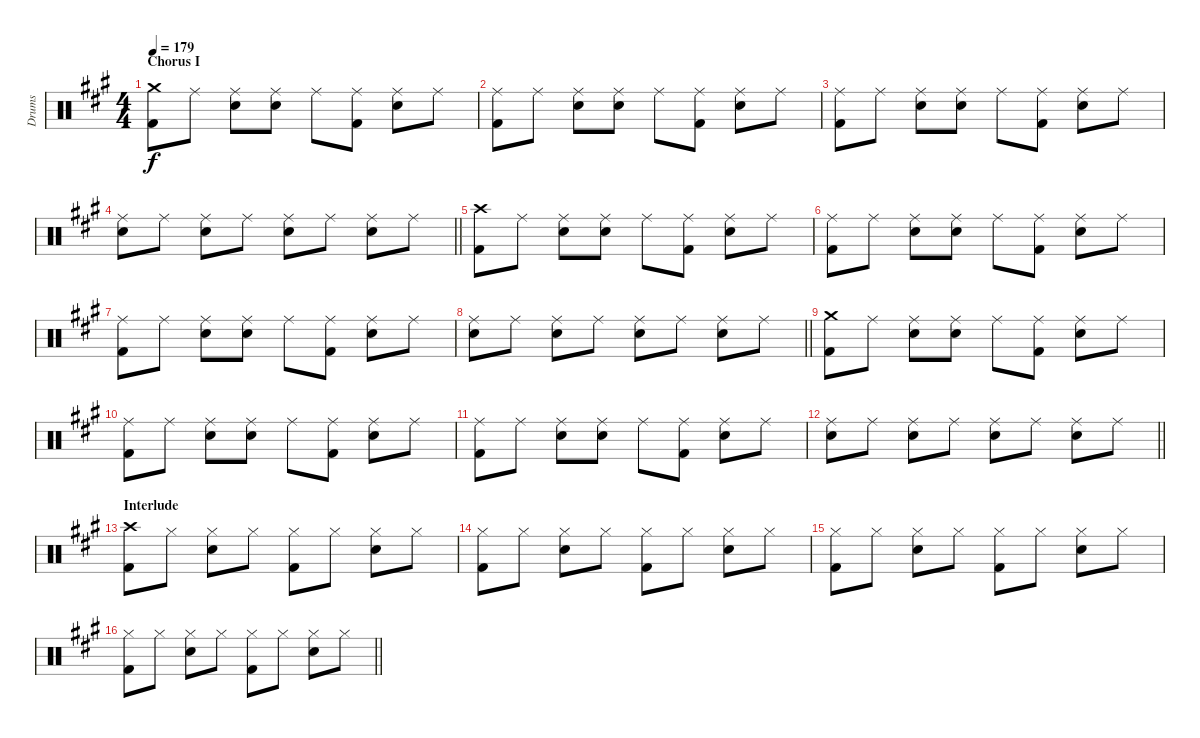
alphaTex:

\track ("Drums" "Drums") {instrument percussion}
\staff {score}
\articulation defaults
\ts (4 4)
\section ("" "Chorus I")
\tempo 179
\clef neutral
\ks a
("Crash medium (hit)" "Kick (hit) 2").8{dy f} "Ride (middle)".8 ("Ride (middle)" "Electric Snare (hit)").8 ("Ride (middle)" "Electric Snare (hit)").8 "Ride (middle)".8 ("Ride (middle)" "Kick (hit) 2").8 ("Ride (middle)" "Electric Snare (hit)").8 "Ride (middle)".8 |
("Ride (middle)" "Kick (hit) 2").8 "Ride (middle)".8 ("Ride (middle)" "Electric Snare (hit)").8 ("Ride (middle)" "Electric Snare (hit)").8 "Ride (middle)".8 ("Ride (middle)" "Kick (hit) 2").8 ("Ride (middle)" "Electric Snare (hit)").8 "Ride (middle)".8 |
("Ride (middle)" "Kick (hit) 2").8 "Ride (middle)".8 ("Ride (middle)" "Electric Snare (hit)").8 ("Ride (middle)" "Electric Snare (hit)").8 "Ride (middle)".8 ("Ride (middle)" "Kick (hit) 2").8 ("Ride (middle)" "Electric Snare (hit)").8 "Ride (middle)".8 |
\barLineRight lightlight
("Ride (middle)" "Electric Snare (hit)").8 "Ride (middle)".8 ("Ride (middle)" "Electric Snare (hit)").8 "Ride (middle)".8 ("Ride (middle)" "Electric Snare (hit)").8 "Ride (middle)".8 ("Ride (middle)" "Electric Snare (hit)").8 "Ride (middle)".8 |
("Crash high (hit)" "Kick (hit) 2").8 "Ride (middle)".8 ("Ride (middle)" "Electric Snare (hit)").8 ("Ride (middle)" "Electric Snare (hit)").8 "Ride (middle)".8 ("Ride (middle)" "Kick (hit) 2").8 ("Ride (middle)" "Electric Snare (hit)").8 "Ride (middle)".8 |
("Ride (middle)" "Kick (hit) 2").8 "Ride (middle)".8 ("Ride (middle)" "Electric Snare (hit)").8 ("Ride (middle)" "Electric Snare (hit)").8 "Ride (middle)".8 ("Ride (middle)" "Kick (hit) 2").8 ("Ride (middle)" "Electric Snare (hit)").8 "Ride (middle)".8 |
("Ride (middle)" "Kick (hit) 2").8 "Ride (middle)".8 ("Ride (middle)" "Electric Snare (hit)").8 ("Ride (middle)" "Electric Snare (hit)").8 "Ride (middle)".8 ("Ride (middle)" "Kick (hit) 2").8 ("Ride (middle)" "Electric Snare (hit)").8 "Ride (middle)".8 |
\barLineRight lightlight
("Ride (middle)" "Electric Snare (hit)").8 "Ride (middle)".8 ("Ride (middle)" "Electric Snare (hit)").8 "Ride (middle)".8 ("Ride (middle)" "Electric Snare (hit)").8 "Ride (middle)".8 ("Ride (middle)" "Electric Snare (hit)").8 "Ride (middle)".8 |
("Crash medium (hit)" "Kick (hit) 2").8 "Ride (middle)".8 ("Ride (middle)" "Electric Snare (hit)").8 ("Ride (middle)" "Electric Snare (hit)").8 "Ride (middle)".8 ("Ride (middle)" "Kick (hit) 2").8 ("Ride (middle)" "Electric Snare (hit)").8 "Ride (middle)".8 |
("Ride (middle)" "Kick (hit) 2").8 "Ride (middle)".8 ("Ride (middle)" "Electric Snare (hit)").8 ("Ride (middle)" "Electric Snare (hit)").8 "Ride (middle)".8 ("Ride (middle)" "Kick (hit) 2").8 ("Ride (middle)" "Electric Snare (hit)").8 "Ride (middle)".8 |
("Ride (middle)" "Kick (hit) 2").8 "Ride (middle)".8 ("Ride (middle)" "Electric Snare (hit)").8 ("Ride (middle)" "Electric Snare (hit)").8 "Ride (middle)".8 ("Ride (middle)" "Kick (hit) 2").8 ("Ride (middle)" "Electric Snare (hit)").8 "Ride (middle)".8 |
\barLineRight lightlight
("Ride (middle)" "Electric Snare (hit)").8 "Ride (middle)".8 ("Ride (middle)" "Electric Snare (hit)").8 "Ride (middle)".8 ("Ride (middle)" "Electric Snare (hit)").8 "Ride (middle)".8 ("Ride (middle)" "Electric Snare (hit)").8 "Ride (middle)".8 |
\section ("" "Interlude")
("Crash high (hit)" "Kick (hit) 2").8 "Hi-Hat (closed)".8 ("Hi-Hat (closed)" "Electric Snare (hit)").8 "Hi-Hat (closed)".8 ("Hi-Hat (closed)" "Kick (hit) 2").8 "Hi-Hat (closed)".8 ("Hi-Hat (closed)" "Electric Snare (hit)").8 "Hi-Hat (closed)".8 |
("Hi-Hat (closed)" "Kick (hit) 2").8 "Hi-Hat (closed)".8 ("Hi-Hat (closed)" "Electric Snare (hit)").8 "Hi-Hat (closed)".8 ("Hi-Hat (closed)" "Kick (hit) 2").8 "Hi-Hat (closed)".8 ("Hi-Hat (closed)" "Electric Snare (hit)").8 "Hi-Hat (closed)".8 |
("Hi-Hat (closed)" "Kick (hit) 2").8 "Hi-Hat (closed)".8 ("Hi-Hat (closed)" "Electric Snare (hit)").8 "Hi-Hat (closed)".8 ("Hi-Hat (closed)" "Kick (hit) 2").8 "Hi-Hat (closed)".8 ("Hi-Hat (closed)" "Electric Snare (hit)").8 "Hi-Hat (closed)".8 |
\barLineRight lightlight
("Hi-Hat (closed)" "Kick (hit) 2").8 "Hi-Hat (closed)".8 ("Hi-Hat (closed)" "Electric Snare (hit)").8 "Hi-Hat (closed)".8 ("Hi-Hat (closed)" "Kick (hit) 2").8 "Hi-Hat (closed)".8 ("Hi-Hat (closed)" "Electric Snare (hit)").8 "Hi-Hat (closed)".8
